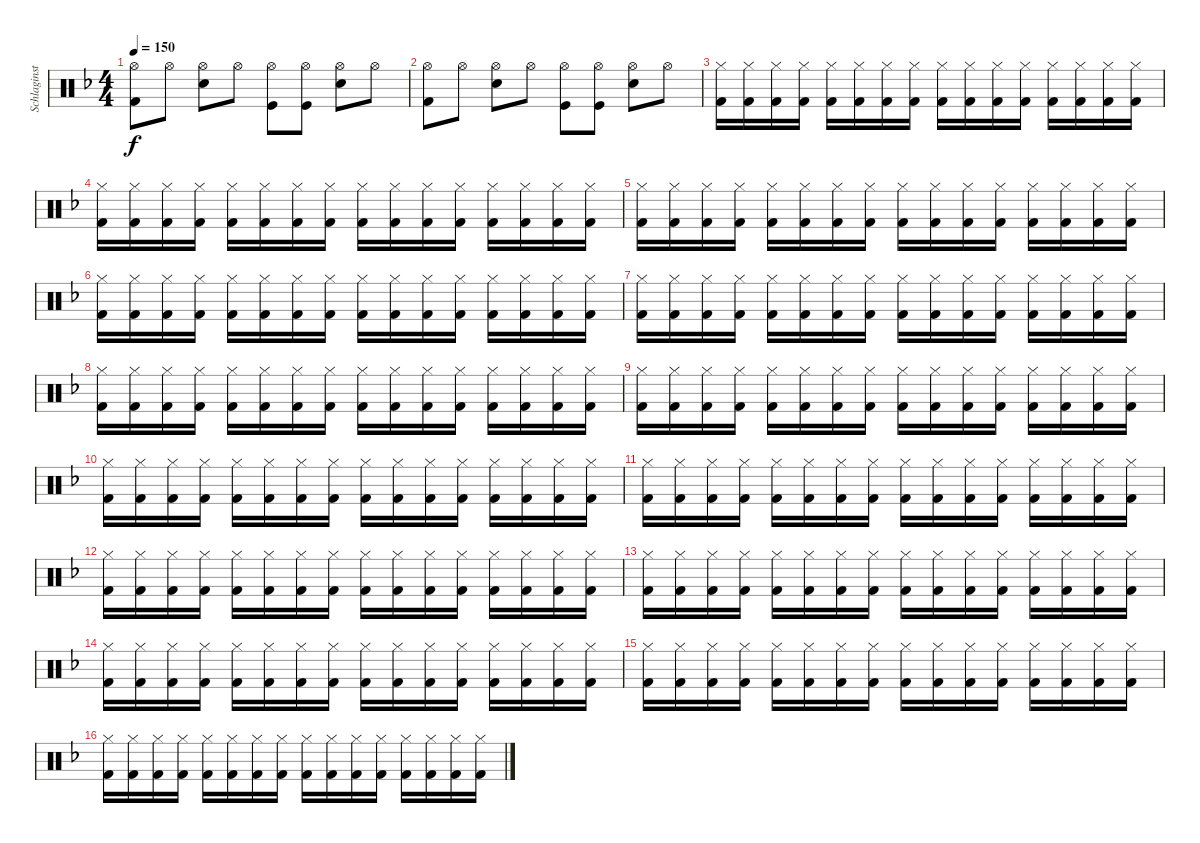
\track ("Schlaginstrumente - Auswahl" "Schlaginst") {instrument percussion}
\staff {score}
\articulation defaults
\ts (4 4)
\tempo 150
\clef neutral
\ks f
("Hi-Hat (open)" "Kick (hit) 2").8{dy f} "Hi-Hat (open)".8 ("Hi-Hat (open)" "Snare (hit) 2").8 "Hi-Hat (open)".8 ("Hi-Hat (open)" "Kick (hit)").8 ("Kick (hit)" "Hi-Hat (open)").8 ("Hi-Hat (open)" "Snare (hit) 2").8 "Hi-Hat (open)".8 |
("Hi-Hat (open)" "Kick (hit) 2").8 "Hi-Hat (open)".8 ("Hi-Hat (open)" "Snare (hit) 2").8 "Hi-Hat (open)".8 ("Hi-Hat (open)" "Kick (hit)").8 ("Kick (hit)" "Hi-Hat (open)").8 ("Hi-Hat (open)" "Snare (hit) 2").8 "Hi-Hat (open)".8 |
("Kick (hit) 2" "Hi-Hat (closed)").16 ("Hi-Hat (closed)" "Kick (hit) 2").16 ("Hi-Hat (closed)" "Kick (hit) 2").16 ("Hi-Hat (closed)" "Kick (hit) 2").16 ("Hi-Hat (closed)" "Kick (hit) 2").16 ("Hi-Hat (closed)" "Kick (hit) 2").16 ("Hi-Hat (closed)" "Kick (hit) 2").16 ("Hi-Hat (closed)" "Kick (hit) 2").16 ("Hi-Hat (closed)" "Kick (hit) 2").16 ("Hi-Hat (closed)" "Kick (hit) 2").16 ("Hi-Hat (closed)" "Kick (hit) 2").16 ("Hi-Hat (closed)" "Kick (hit) 2").16 ("Hi-Hat (closed)" "Kick (hit) 2").16 ("Hi-Hat (closed)" "Kick (hit) 2").16 ("Hi-Hat (closed)" "Kick (hit) 2").16 ("Hi-Hat (closed)" "Kick (hit) 2").16 |
("Kick (hit) 2" "Hi-Hat (closed)").16 ("Hi-Hat (closed)" "Kick (hit) 2").16 ("Hi-Hat (closed)" "Kick (hit) 2").16 ("Hi-Hat (closed)" "Kick (hit) 2").16 ("Hi-Hat (closed)" "Kick (hit) 2").16 ("Hi-Hat (closed)" "Kick (hit) 2").16 ("Hi-Hat (closed)" "Kick (hit) 2").16 ("Hi-Hat (closed)" "Kick (hit) 2").16 ("Hi-Hat (closed)" "Kick (hit) 2").16 ("Hi-Hat (closed)" "Kick (hit) 2").16 ("Hi-Hat (closed)" "Kick (hit) 2").16 ("Hi-Hat (closed)" "Kick (hit) 2").16 ("Hi-Hat (closed)" "Kick (hit) 2").16 ("Hi-Hat (closed)" "Kick (hit) 2").16 ("Hi-Hat (closed)" "Kick (hit) 2").16 ("Hi-Hat (closed)" "Kick (hit) 2").16 |
("Kick (hit) 2" "Hi-Hat (closed)").16 ("Hi-Hat (closed)" "Kick (hit) 2").16 ("Hi-Hat (closed)" "Kick (hit) 2").16 ("Hi-Hat (closed)" "Kick (hit) 2").16 ("Hi-Hat (closed)" "Kick (hit) 2").16 ("Hi-Hat (closed)" "Kick (hit) 2").16 ("Hi-Hat (closed)" "Kick (hit) 2").16 ("Hi-Hat (closed)" "Kick (hit) 2").16 ("Hi-Hat (closed)" "Kick (hit) 2").16 ("Hi-Hat (closed)" "Kick (hit) 2").16 ("Hi-Hat (closed)" "Kick (hit) 2").16 ("Hi-Hat (closed)" "Kick (hit) 2").16 ("Hi-Hat (closed)" "Kick (hit) 2").16 ("Hi-Hat (closed)" "Kick (hit) 2").16 ("Hi-Hat (closed)" "Kick (hit) 2").16 ("Hi-Hat (closed)" "Kick (hit) 2").16 |
("Kick (hit) 2" "Hi-Hat (closed)").16 ("Hi-Hat (closed)" "Kick (hit) 2").16 ("Hi-Hat (closed)" "Kick (hit) 2").16 ("Hi-Hat (closed)" "Kick (hit) 2").16 ("Hi-Hat (closed)" "Kick (hit) 2").16 ("Hi-Hat (closed)" "Kick (hit) 2").16 ("Hi-Hat (closed)" "Kick (hit) 2").16 ("Hi-Hat (closed)" "Kick (hit) 2").16 ("Hi-Hat (closed)" "Kick (hit) 2").16 ("Hi-Hat (closed)" "Kick (hit) 2").16 ("Hi-Hat (closed)" "Kick (hit) 2").16 ("Hi-Hat (closed)" "Kick (hit) 2").16 ("Hi-Hat (closed)" "Kick (hit) 2").16 ("Hi-Hat (closed)" "Kick (hit) 2").16 ("Hi-Hat (closed)" "Kick (hit) 2").16 ("Hi-Hat (closed)" "Kick (hit) 2").16 |
("Kick (hit) 2" "Hi-Hat (closed)").16 ("Hi-Hat (closed)" "Kick (hit) 2").16 ("Hi-Hat (closed)" "Kick (hit) 2").16 ("Hi-Hat (closed)" "Kick (hit) 2").16 ("Hi-Hat (closed)" "Kick (hit) 2").16 ("Hi-Hat (closed)" "Kick (hit) 2").16 ("Hi-Hat (closed)" "Kick (hit) 2").16 ("Hi-Hat (closed)" "Kick (hit) 2").16 ("Hi-Hat (closed)" "Kick (hit) 2").16 ("Hi-Hat (closed)" "Kick (hit) 2").16 ("Hi-Hat (closed)" "Kick (hit) 2").16 ("Hi-Hat (closed)" "Kick (hit) 2").16 ("Hi-Hat (closed)" "Kick (hit) 2").16 ("Hi-Hat (closed)" "Kick (hit) 2").16 ("Hi-Hat (closed)" "Kick (hit) 2").16 ("Hi-Hat (closed)" "Kick (hit) 2").16 |
("Kick (hit) 2" "Hi-Hat (closed)").16 ("Hi-Hat (closed)" "Kick (hit) 2").16 ("Hi-Hat (closed)" "Kick (hit) 2").16 ("Hi-Hat (closed)" "Kick (hit) 2").16 ("Hi-Hat (closed)" "Kick (hit) 2").16 ("Hi-Hat (closed)" "Kick (hit) 2").16 ("Hi-Hat (closed)" "Kick (hit) 2").16 ("Hi-Hat (closed)" "Kick (hit) 2").16 ("Hi-Hat (closed)" "Kick (hit) 2").16 ("Hi-Hat (closed)" "Kick (hit) 2").16 ("Hi-Hat (closed)" "Kick (hit) 2").16 ("Hi-Hat (closed)" "Kick (hit) 2").16 ("Hi-Hat (closed)" "Kick (hit) 2").16 ("Hi-Hat (closed)" "Kick (hit) 2").16 ("Hi-Hat (closed)" "Kick (hit) 2").16 ("Hi-Hat (closed)" "Kick (hit) 2").16 |
("Kick (hit) 2" "Hi-Hat (closed)").16 ("Hi-Hat (closed)" "Kick (hit) 2").16 ("Hi-Hat (closed)" "Kick (hit) 2").16 ("Hi-Hat (closed)" "Kick (hit) 2").16 ("Hi-Hat (closed)" "Kick (hit) 2").16 ("Hi-Hat (closed)" "Kick (hit) 2").16 ("Hi-Hat (closed)" "Kick (hit) 2").16 ("Hi-Hat (closed)" "Kick (hit) 2").16 ("Hi-Hat (closed)" "Kick (hit) 2").16 ("Hi-Hat (closed)" "Kick (hit) 2").16 ("Hi-Hat (closed)" "Kick (hit) 2").16 ("Hi-Hat (closed)" "Kick (hit) 2").16 ("Hi-Hat (closed)" "Kick (hit) 2").16 ("Hi-Hat (closed)" "Kick (hit) 2").16 ("Hi-Hat (closed)" "Kick (hit) 2").16 ("Hi-Hat (closed)" "Kick (hit) 2").16 |
("Kick (hit) 2" "Hi-Hat (closed)").16 ("Hi-Hat (closed)" "Kick (hit) 2").16 ("Hi-Hat (closed)" "Kick (hit) 2").16 ("Hi-Hat (closed)" "Kick (hit) 2").16 ("Hi-Hat (closed)" "Kick (hit) 2").16 ("Hi-Hat (closed)" "Kick (hit) 2").16 ("Hi-Hat (closed)" "Kick (hit) 2").16 ("Hi-Hat (closed)" "Kick (hit) 2").16 ("Hi-Hat (closed)" "Kick (hit) 2").16 ("Hi-Hat (closed)" "Kick (hit) 2").16 ("Hi-Hat (closed)" "Kick (hit) 2").16 ("Hi-Hat (closed)" "Kick (hit) 2").16 ("Hi-Hat (closed)" "Kick (hit) 2").16 ("Hi-Hat (closed)" "Kick (hit) 2").16 ("Hi-Hat (closed)" "Kick (hit) 2").16 ("Hi-Hat (closed)" "Kick (hit) 2").16 |
("Kick (hit) 2" "Hi-Hat (closed)").16 ("Hi-Hat (closed)" "Kick (hit) 2").16 ("Hi-Hat (closed)" "Kick (hit) 2").16 ("Hi-Hat (closed)" "Kick (hit) 2").16 ("Hi-Hat (closed)" "Kick (hit) 2").16 ("Hi-Hat (closed)" "Kick (hit) 2").16 ("Hi-Hat (closed)" "Kick (hit) 2").16 ("Hi-Hat (closed)" "Kick (hit) 2").16 ("Hi-Hat (closed)" "Kick (hit) 2").16 ("Hi-Hat (closed)" "Kick (hit) 2").16 ("Hi-Hat (closed)" "Kick (hit) 2").16 ("Hi-Hat (closed)" "Kick (hit) 2").16 ("Hi-Hat (closed)" "Kick (hit) 2").16 ("Hi-Hat (closed)" "Kick (hit) 2").16 ("Hi-Hat (closed)" "Kick (hit) 2").16 ("Hi-Hat (closed)" "Kick (hit) 2").16 |
("Kick (hit) 2" "Hi-Hat (closed)").16 ("Hi-Hat (closed)" "Kick (hit) 2").16 ("Hi-Hat (closed)" "Kick (hit) 2").16 ("Hi-Hat (closed)" "Kick (hit) 2").16 ("Hi-Hat (closed)" "Kick (hit) 2").16 ("Hi-Hat (closed)" "Kick (hit) 2").16 ("Hi-Hat (closed)" "Kick (hit) 2").16 ("Hi-Hat (closed)" "Kick (hit) 2").16 ("Hi-Hat (closed)" "Kick (hit) 2").16 ("Hi-Hat (closed)" "Kick (hit) 2").16 ("Hi-Hat (closed)" "Kick (hit) 2").16 ("Hi-Hat (closed)" "Kick (hit) 2").16 ("Hi-Hat (closed)" "Kick (hit) 2").16 ("Hi-Hat (closed)" "Kick (hit) 2").16 ("Hi-Hat (closed)" "Kick (hit) 2").16 ("Hi-Hat (closed)" "Kick (hit) 2").16 |
("Kick (hit) 2" "Hi-Hat (closed)").16 ("Hi-Hat (closed)" "Kick (hit) 2").16 ("Hi-Hat (closed)" "Kick (hit) 2").16 ("Hi-Hat (closed)" "Kick (hit) 2").16 ("Hi-Hat (closed)" "Kick (hit) 2").16 ("Hi-Hat (closed)" "Kick (hit) 2").16 ("Hi-Hat (closed)" "Kick (hit) 2").16 ("Hi-Hat (closed)" "Kick (hit) 2").16 ("Hi-Hat (closed)" "Kick (hit) 2").16 ("Hi-Hat (closed)" "Kick (hit) 2").16 ("Hi-Hat (closed)" "Kick (hit) 2").16 ("Hi-Hat (closed)" "Kick (hit) 2").16 ("Hi-Hat (closed)" "Kick (hit) 2").16 ("Hi-Hat (closed)" "Kick (hit) 2").16 ("Hi-Hat (closed)" "Kick (hit) 2").16 ("Hi-Hat (closed)" "Kick (hit) 2").16 |
("Kick (hit) 2" "Hi-Hat (closed)").16 ("Hi-Hat (closed)" "Kick (hit) 2").16 ("Hi-Hat (closed)" "Kick (hit) 2").16 ("Hi-Hat (closed)" "Kick (hit) 2").16 ("Hi-Hat (closed)" "Kick (hit) 2").16 ("Hi-Hat (closed)" "Kick (hit) 2").16 ("Hi-Hat (closed)" "Kick (hit) 2").16 ("Hi-Hat (closed)" "Kick (hit) 2").16 ("Hi-Hat (closed)" "Kick (hit) 2").16 ("Hi-Hat (closed)" "Kick (hit) 2").16 ("Hi-Hat (closed)" "Kick (hit) 2").16 ("Hi-Hat (closed)" "Kick (hit) 2").16 ("Hi-Hat (closed)" "Kick (hit) 2").16 ("Hi-Hat (closed)" "Kick (hit) 2").16 ("Hi-Hat (closed)" "Kick (hit) 2").16 ("Hi-Hat (closed)" "Kick (hit) 2").16 |
("Kick (hit) 2" "Hi-Hat (closed)").16 ("Hi-Hat (closed)" "Kick (hit) 2").16 ("Hi-Hat (closed)" "Kick (hit) 2").16 ("Hi-Hat (closed)" "Kick (hit) 2").16 ("Hi-Hat (closed)" "Kick (hit) 2").16 ("Hi-Hat (closed)" "Kick (hit) 2").16 ("Hi-Hat (closed)" "Kick (hit) 2").16 ("Hi-Hat (closed)" "Kick (hit) 2").16 ("Hi-Hat (closed)" "Kick (hit) 2").16 ("Hi-Hat (closed)" "Kick (hit) 2").16 ("Hi-Hat (closed)" "Kick (hit) 2").16 ("Hi-Hat (closed)" "Kick (hit) 2").16 ("Hi-Hat (closed)" "Kick (hit) 2").16 ("Hi-Hat (closed)" "Kick (hit) 2").16 ("Hi-Hat (closed)" "Kick (hit) 2").16 ("Hi-Hat (closed)" "Kick (hit) 2").16 |
("Kick (hit) 2" "Hi-Hat (closed)").16 ("Hi-Hat (closed)" "Kick (hit) 2").16 ("Hi-Hat (closed)" "Kick (hit) 2").16 ("Hi-Hat (closed)" "Kick (hit) 2").16 ("Hi-Hat (closed)" "Kick (hit) 2").16 ("Hi-Hat (closed)" "Kick (hit) 2").16 ("Hi-Hat (closed)" "Kick (hit) 2").16 ("Hi-Hat (closed)" "Kick (hit) 2").16 ("Hi-Hat (closed)" "Kick (hit) 2").16 ("Hi-Hat (closed)" "Kick (hit) 2").16 ("Hi-Hat (closed)" "Kick (hit) 2").16 ("Hi-Hat (closed)" "Kick (hit) 2").16 ("Hi-Hat (closed)" "Kick (hit) 2").16 ("Hi-Hat (closed)" "Kick (hit) 2").16 ("Hi-Hat (closed)" "Kick (hit) 2").16 ("Hi-Hat (closed)" "Kick (hit) 2").16
